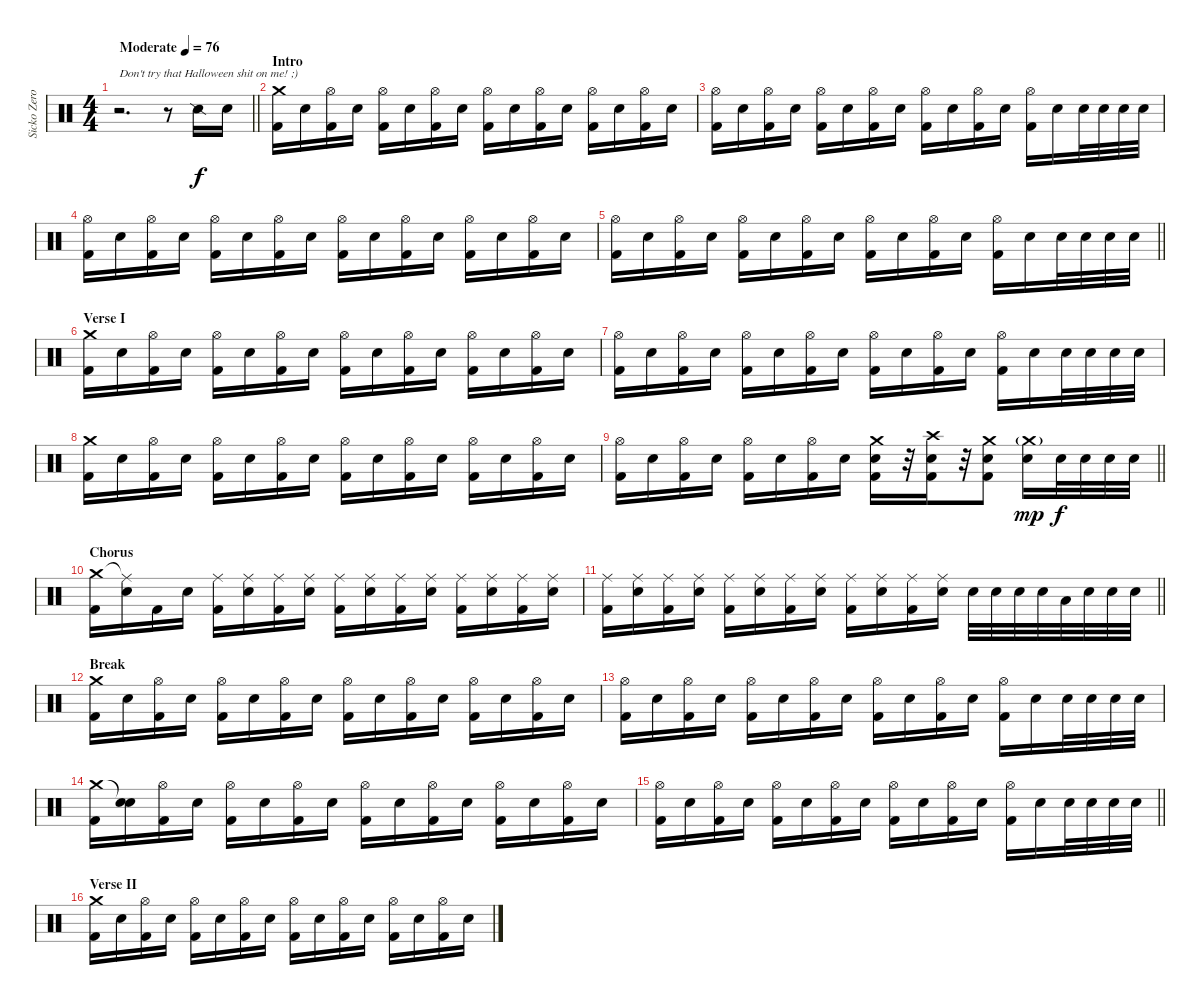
\track ("Sicko Zero" "Sicko Zero") {instrument percussion}
\staff {score}
\articulation defaults
\ts (4 4)
\tempo (76 "Moderate")
\clef neutral
\barLineRight lightlight
\ks c
r.2{d txt "Don't try that Halloween shit on me! ;)" dy f} r.8 "Snare (side stick) 2".16 "Electric Snare (hit)".16 |
\section ("" "Intro")
("Crash medium (hit)" "Kick (hit) 2").16 "Electric Snare (hit)".16 ("Hi-Hat (open)" "Kick (hit) 2").16 "Electric Snare (hit)".16 ("Hi-Hat (open)" "Kick (hit) 2").16 "Electric Snare (hit)".16 ("Hi-Hat (open)" "Kick (hit) 2").16 "Electric Snare (hit)".16 ("Hi-Hat (open)" "Kick (hit) 2").16 "Electric Snare (hit)".16 ("Hi-Hat (open)" "Kick (hit) 2").16 "Electric Snare (hit)".16 ("Hi-Hat (open)" "Kick (hit) 2").16 "Electric Snare (hit)".16 ("Hi-Hat (open)" "Kick (hit) 2").16 "Electric Snare (hit)".16 |
("Hi-Hat (open)" "Kick (hit) 2").16 "Electric Snare (hit)".16 ("Hi-Hat (open)" "Kick (hit) 2").16 "Electric Snare (hit)".16 ("Hi-Hat (open)" "Kick (hit) 2").16 "Electric Snare (hit)".16 ("Hi-Hat (open)" "Kick (hit) 2").16 "Electric Snare (hit)".16 ("Hi-Hat (open)" "Kick (hit) 2").16 "Electric Snare (hit)".16 ("Hi-Hat (open)" "Kick (hit) 2").16 "Electric Snare (hit)".16 ("Hi-Hat (open)" "Kick (hit) 2").16 "Electric Snare (hit)".16 "Electric Snare (hit)".32 "Electric Snare (hit)".32 "Electric Snare (hit)".32 "Electric Snare (hit)".32 |
("Hi-Hat (open)" "Kick (hit) 2").16 "Electric Snare (hit)".16 ("Hi-Hat (open)" "Kick (hit) 2").16 "Electric Snare (hit)".16 ("Hi-Hat (open)" "Kick (hit) 2").16 "Electric Snare (hit)".16 ("Hi-Hat (open)" "Kick (hit) 2").16 "Electric Snare (hit)".16 ("Hi-Hat (open)" "Kick (hit) 2").16 "Electric Snare (hit)".16 ("Hi-Hat (open)" "Kick (hit) 2").16 "Electric Snare (hit)".16 ("Hi-Hat (open)" "Kick (hit) 2").16 "Electric Snare (hit)".16 ("Hi-Hat (open)" "Kick (hit) 2").16 "Electric Snare (hit)".16 |
\barLineRight lightlight
("Hi-Hat (open)" "Kick (hit) 2").16 "Electric Snare (hit)".16 ("Hi-Hat (open)" "Kick (hit) 2").16 "Electric Snare (hit)".16 ("Hi-Hat (open)" "Kick (hit) 2").16 "Electric Snare (hit)".16 ("Hi-Hat (open)" "Kick (hit) 2").16 "Electric Snare (hit)".16 ("Hi-Hat (open)" "Kick (hit) 2").16 "Electric Snare (hit)".16 ("Hi-Hat (open)" "Kick (hit) 2").16 "Electric Snare (hit)".16 ("Hi-Hat (open)" "Kick (hit) 2").16 "Electric Snare (hit)".16 "Electric Snare (hit)".32 "Electric Snare (hit)".32 "Electric Snare (hit)".32 "Electric Snare (hit)".32 |
\section ("" "Verse I")
("Crash medium (hit)" "Kick (hit) 2").16 "Electric Snare (hit)".16 ("Hi-Hat (open)" "Kick (hit) 2").16 "Electric Snare (hit)".16 ("Hi-Hat (open)" "Kick (hit) 2").16 "Electric Snare (hit)".16 ("Hi-Hat (open)" "Kick (hit) 2").16 "Electric Snare (hit)".16 ("Hi-Hat (open)" "Kick (hit) 2").16 "Electric Snare (hit)".16 ("Hi-Hat (open)" "Kick (hit) 2").16 "Electric Snare (hit)".16 ("Hi-Hat (open)" "Kick (hit) 2").16 "Electric Snare (hit)".16 ("Hi-Hat (open)" "Kick (hit) 2").16 "Electric Snare (hit)".16 |
("Hi-Hat (open)" "Kick (hit) 2").16 "Electric Snare (hit)".16 ("Hi-Hat (open)" "Kick (hit) 2").16 "Electric Snare (hit)".16 ("Hi-Hat (open)" "Kick (hit) 2").16 "Electric Snare (hit)".16 ("Hi-Hat (open)" "Kick (hit) 2").16 "Electric Snare (hit)".16 ("Hi-Hat (open)" "Kick (hit) 2").16 "Electric Snare (hit)".16 ("Hi-Hat (open)" "Kick (hit) 2").16 "Electric Snare (hit)".16 ("Hi-Hat (open)" "Kick (hit) 2").16 "Electric Snare (hit)".16 "Electric Snare (hit)".32 "Electric Snare (hit)".32 "Electric Snare (hit)".32 "Electric Snare (hit)".32 |
("Crash medium (hit)" "Kick (hit) 2").16 "Electric Snare (hit)".16 ("Hi-Hat (open)" "Kick (hit) 2").16 "Electric Snare (hit)".16 ("Hi-Hat (open)" "Kick (hit) 2").16 "Electric Snare (hit)".16 ("Hi-Hat (open)" "Kick (hit) 2").16 "Electric Snare (hit)".16 ("Hi-Hat (open)" "Kick (hit) 2").16 "Electric Snare (hit)".16 ("Hi-Hat (open)" "Kick (hit) 2").16 "Electric Snare (hit)".16 ("Hi-Hat (open)" "Kick (hit) 2").16 "Electric Snare (hit)".16 ("Hi-Hat (open)" "Kick (hit) 2").16 "Electric Snare (hit)".16 |
\barLineRight lightlight
("Hi-Hat (open)" "Kick (hit) 2").16 "Electric Snare (hit)".16 ("Hi-Hat (open)" "Kick (hit) 2").16 "Electric Snare (hit)".16 ("Hi-Hat (open)" "Kick (hit) 2").16 "Electric Snare (hit)".16 ("Hi-Hat (open)" "Kick (hit) 2").16 "Electric Snare (hit)".16 ("Crash medium (hit)" "Electric Snare (hit)" "Kick (hit) 2").16 r.32 ("Crash high (hit)" "Electric Snare (hit)" "Kick (hit) 2").16 r.32 ("Crash medium (hit)" "Electric Snare (hit)" "Kick (hit) 2").8 ("Crash medium (hit)"{g} "Electric Snare (hit)").16{dy mp} "Electric Snare (hit)".32{dy f} "Electric Snare (hit)".32 "Electric Snare (hit)".32 "Electric Snare (hit)".32 |
\section ("" "Chorus")
("Crash medium (hit)" "Kick (hit) 2").16 ("Ride (middle)"{t} "Electric Snare (hit)").16 "Kick (hit) 2".16 "Electric Snare (hit)".16 ("Ride (middle)" "Kick (hit) 2").16 ("Ride (middle)" "Electric Snare (hit)").16 ("Ride (middle)" "Kick (hit) 2").16 ("Ride (middle)" "Electric Snare (hit)").16 ("Ride (middle)" "Kick (hit) 2").16 ("Ride (middle)" "Electric Snare (hit)").16 ("Ride (middle)" "Kick (hit) 2").16 ("Ride (middle)" "Electric Snare (hit)").16 ("Ride (middle)" "Kick (hit) 2").16 ("Ride (middle)" "Electric Snare (hit)").16 ("Ride (middle)" "Kick (hit) 2").16 ("Ride (middle)" "Electric Snare (hit)").16 |
\barLineRight lightlight
("Ride (middle)" "Kick (hit) 2").16 ("Ride (middle)" "Electric Snare (hit)").16 ("Ride (middle)" "Kick (hit) 2").16 ("Ride (middle)" "Electric Snare (hit)").16 ("Ride (middle)" "Kick (hit) 2").16 ("Ride (middle)" "Electric Snare (hit)").16 ("Ride (middle)" "Kick (hit) 2").16 ("Ride (middle)" "Electric Snare (hit)").16 ("Ride (middle)" "Kick (hit) 2").16 ("Ride (middle)" "Electric Snare (hit)").16 ("Ride (middle)" "Kick (hit) 2").16 ("Ride (middle)" "Electric Snare (hit)").16 "Electric Snare (hit)".32 "Electric Snare (hit)".32 "Electric Snare (hit)".32 "Electric Snare (hit)".32 "Low Tom (hit)".32 "Electric Snare (hit)".32 "Electric Snare (hit)".32 "Electric Snare (hit)".32 |
\section ("" "Break")
("Crash medium (hit)" "Kick (hit) 2").16 "Electric Snare (hit)".16 ("Hi-Hat (open)" "Kick (hit) 2").16 "Electric Snare (hit)".16 ("Hi-Hat (open)" "Kick (hit) 2").16 "Electric Snare (hit)".16 ("Hi-Hat (open)" "Kick (hit) 2").16 "Electric Snare (hit)".16 ("Hi-Hat (open)" "Kick (hit) 2").16 "Electric Snare (hit)".16 ("Hi-Hat (open)" "Kick (hit) 2").16 "Electric Snare (hit)".16 ("Hi-Hat (open)" "Kick (hit) 2").16 "Electric Snare (hit)".16 ("Hi-Hat (open)" "Kick (hit) 2").16 "Electric Snare (hit)".16 |
("Hi-Hat (open)" "Kick (hit) 2").16 "Electric Snare (hit)".16 ("Hi-Hat (open)" "Kick (hit) 2").16 "Electric Snare (hit)".16 ("Hi-Hat (open)" "Kick (hit) 2").16 "Electric Snare (hit)".16 ("Hi-Hat (open)" "Kick (hit) 2").16 "Electric Snare (hit)".16 ("Hi-Hat (open)" "Kick (hit) 2").16 "Electric Snare (hit)".16 ("Hi-Hat (open)" "Kick (hit) 2").16 "Electric Snare (hit)".16 ("Hi-Hat (open)" "Kick (hit) 2").16 "Electric Snare (hit)".16 "Electric Snare (hit)".32 "Electric Snare (hit)".32 "Electric Snare (hit)".32 "Electric Snare (hit)".32 |
("Crash medium (hit)" "Kick (hit) 2").16 ("Snare (hit)"{t} "Electric Snare (hit)").16 ("Hi-Hat (open)" "Kick (hit) 2").16 "Electric Snare (hit)".16 ("Hi-Hat (open)" "Kick (hit) 2").16 "Electric Snare (hit)".16 ("Hi-Hat (open)" "Kick (hit) 2").16 "Electric Snare (hit)".16 ("Hi-Hat (open)" "Kick (hit) 2").16 "Electric Snare (hit)".16 ("Hi-Hat (open)" "Kick (hit) 2").16 "Electric Snare (hit)".16 ("Hi-Hat (open)" "Kick (hit) 2").16 "Electric Snare (hit)".16 ("Hi-Hat (open)" "Kick (hit) 2").16 "Electric Snare (hit)".16 |
\barLineRight lightlight
("Hi-Hat (open)" "Kick (hit) 2").16 "Electric Snare (hit)".16 ("Hi-Hat (open)" "Kick (hit) 2").16 "Electric Snare (hit)".16 ("Hi-Hat (open)" "Kick (hit) 2").16 "Electric Snare (hit)".16 ("Hi-Hat (open)" "Kick (hit) 2").16 "Electric Snare (hit)".16 ("Hi-Hat (open)" "Kick (hit) 2").16 "Electric Snare (hit)".16 ("Hi-Hat (open)" "Kick (hit) 2").16 "Electric Snare (hit)".16 ("Hi-Hat (open)" "Kick (hit) 2").16 "Electric Snare (hit)".16 "Electric Snare (hit)".32 "Electric Snare (hit)".32 "Electric Snare (hit)".32 "Electric Snare (hit)".32 |
\section ("" "Verse II")
("Crash medium (hit)" "Kick (hit) 2").16 "Electric Snare (hit)".16 ("Hi-Hat (open)" "Kick (hit) 2").16 "Electric Snare (hit)".16 ("Hi-Hat (open)" "Kick (hit) 2").16 "Electric Snare (hit)".16 ("Hi-Hat (open)" "Kick (hit) 2").16 "Electric Snare (hit)".16 ("Hi-Hat (open)" "Kick (hit) 2").16 "Electric Snare (hit)".16 ("Hi-Hat (open)" "Kick (hit) 2").16 "Electric Snare (hit)".16 ("Hi-Hat (open)" "Kick (hit) 2").16 "Electric Snare (hit)".16 ("Hi-Hat (open)" "Kick (hit) 2").16 "Electric Snare (hit)".16
